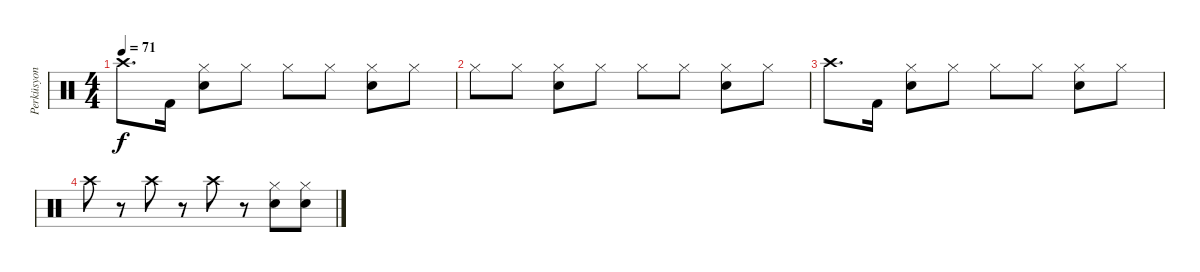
\track ("Perküsyon" "Perküsyon") {instrument percussion}
\staff {score}
\articulation defaults
\ts (4 4)
\tempo 71
\clef neutral
\ks c "Crash high (hit)".8{d dy f} "Kick (hit) 2".16
("Hi-Hat (closed)" "Electric Snare (hit)").8 "Hi-Hat (closed)".8 "Hi-Hat (closed)".8 "Hi-Hat (closed)".8 ("Hi-Hat (closed)" "Electric Snare (hit)").8 "Hi-Hat (closed)".8 |
"Hi-Hat (closed)".8 "Hi-Hat (closed)".8 ("Hi-Hat (closed)" "Electric Snare (hit)").8 "Hi-Hat (closed)".8 "Hi-Hat (closed)".8 "Hi-Hat (closed)".8 ("Hi-Hat (closed)" "Electric Snare (hit)").8 "Hi-Hat (closed)".8 |
"Crash high (hit)".8{d} "Kick (hit) 2".16 ("Hi-Hat (closed)" "Electric Snare (hit)").8 "Hi-Hat (closed)".8 "Hi-Hat (closed)".8 "Hi-Hat (closed)".8 ("Hi-Hat (closed)" "Electric Snare (hit)").8 "Hi-Hat (closed)".8 |
"Crash high (hit)".8 r.8 "Crash high (hit)".8 r.8 "Crash high (hit)".8 r.8 ("Hi-Hat (closed)" "Electric Snare (hit)").8 ("Hi-Hat (closed)" "Electric Snare (hit)").8
